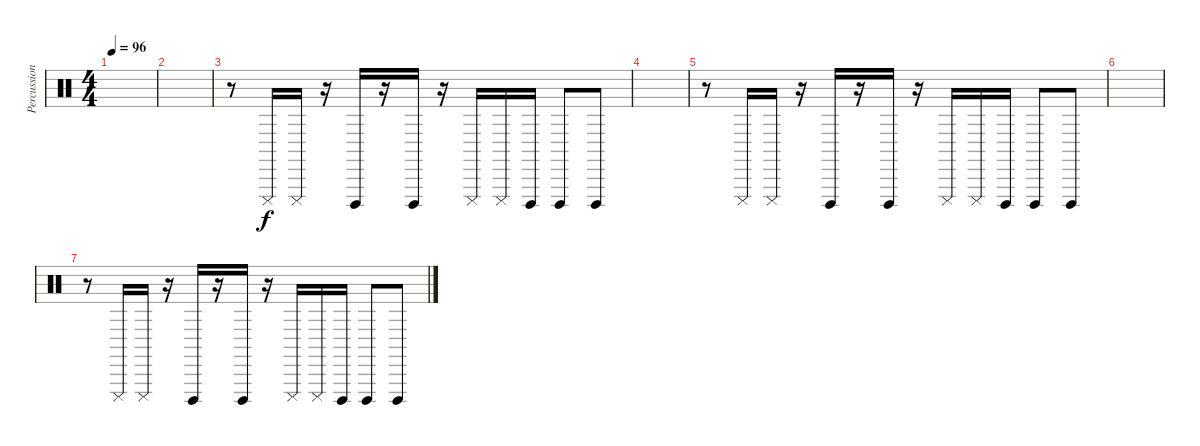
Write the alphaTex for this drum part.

\track ("Percussions soprano" "Percussion") {instrument percussion}
\staff {score}
\articulation defaults
\ts (4 4)
\tempo 96
\clef neutral
\ks c
|
|
r.8 "Cuica (mute)".16 "Cuica (mute)".16 r.16 "Cuica (open)".16 r.16 "Cuica (open)".16 r.16 "Cuica (mute)".16 "Cuica (mute)".16 "Cuica (open)".16 "Cuica (open)".8 "Cuica (open)".8 |
|
r.8 "Cuica (mute)".16 "Cuica (mute)".16 r.16 "Cuica (open)".16 r.16 "Cuica (open)".16 r.16 "Cuica (mute)".16 "Cuica (mute)".16 "Cuica (open)".16 "Cuica (open)".8 "Cuica (open)".8 |
|
r.8 "Cuica (mute)".16 "Cuica (mute)".16 r.16 "Cuica (open)".16 r.16 "Cuica (open)".16 r.16 "Cuica (mute)".16 "Cuica (mute)".16 "Cuica (open)".16 "Cuica (open)".8 "Cuica (open)".8
